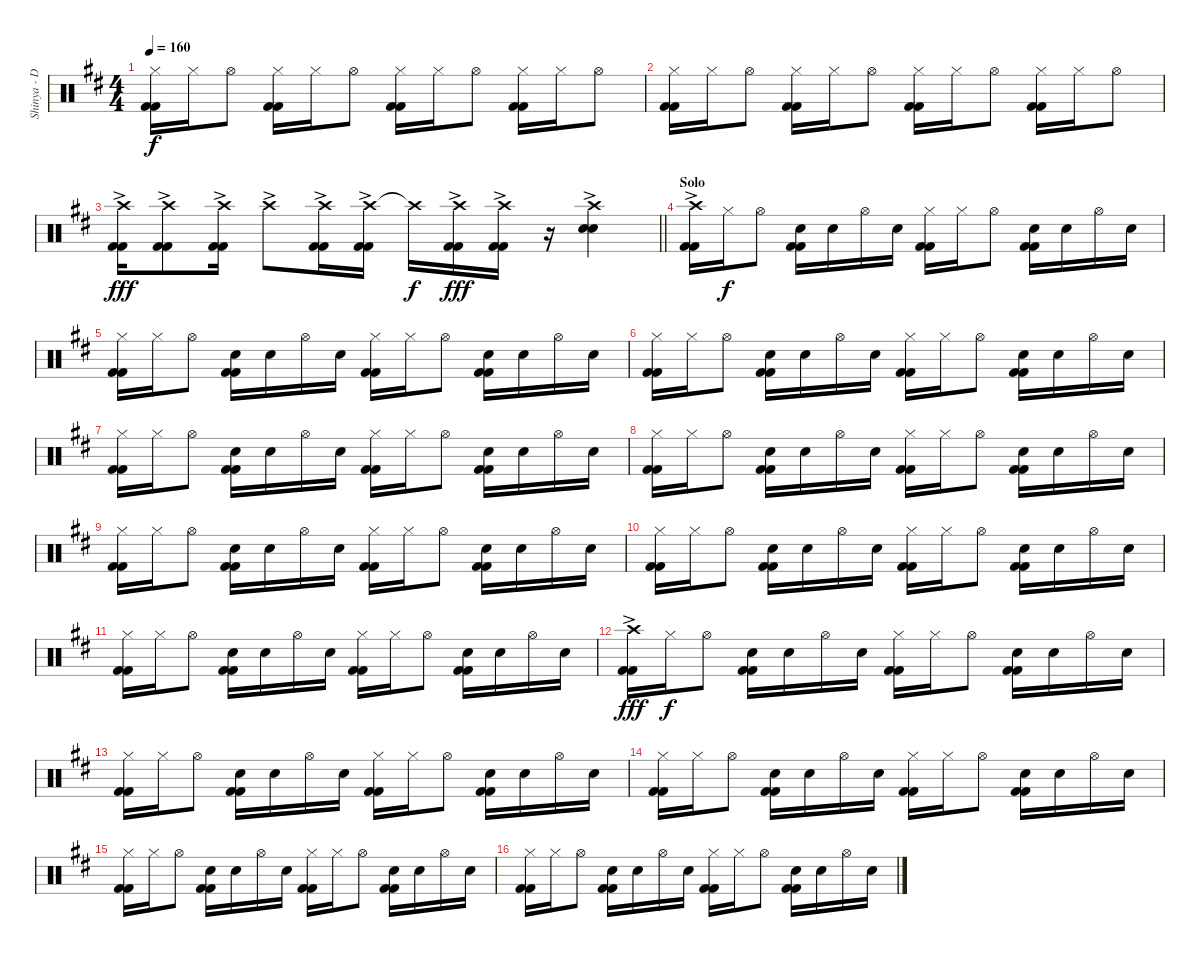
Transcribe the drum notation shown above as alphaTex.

\track ("Shinya - Drums" "Shinya - D") {instrument percussion}
\staff {score}
\articulation defaults
\ts (4 4)
\tempo 160
\clef neutral
\ks d
("Hi-Hat (closed)" "Kick (hit) 2" "Kick (hit) 2").16{dy f} "Hi-Hat (closed)".16 "Hi-Hat (open)".8 ("Hi-Hat (closed)" "Kick (hit) 2" "Kick (hit) 2").16 "Hi-Hat (closed)".16 "Hi-Hat (open)".8 ("Hi-Hat (closed)" "Kick (hit) 2" "Kick (hit) 2").16 "Hi-Hat (closed)".16 "Hi-Hat (open)".8 ("Hi-Hat (closed)" "Kick (hit) 2" "Kick (hit) 2").16 "Hi-Hat (closed)".16 "Hi-Hat (open)".8 |
("Hi-Hat (closed)" "Kick (hit) 2" "Kick (hit) 2").16 "Hi-Hat (closed)".16 "Hi-Hat (open)".8 ("Hi-Hat (closed)" "Kick (hit) 2" "Kick (hit) 2").16 "Hi-Hat (closed)".16 "Hi-Hat (open)".8 ("Hi-Hat (closed)" "Kick (hit) 2" "Kick (hit) 2").16 "Hi-Hat (closed)".16 "Hi-Hat (open)".8 ("Hi-Hat (closed)" "Kick (hit) 2" "Kick (hit) 2").16 "Hi-Hat (closed)".16 "Hi-Hat (open)".8 |
\barLineRight lightlight
("Crash high (hit)"{ac} "Kick (hit) 2" "Kick (hit) 2").16{dy fff} ("Crash high (hit)"{ac} "Kick (hit) 2" "Kick (hit) 2").8 ("Crash high (hit)"{ac} "Kick (hit) 2" "Kick (hit) 2").16 "Crash high (hit)"{ac}.8 ("Crash high (hit)"{ac} "Kick (hit) 2" "Kick (hit) 2").16 ("Crash high (hit)"{ac} "Kick (hit) 2" "Kick (hit) 2").16 "Crash high (hit)"{t}.16{dy f} ("Crash high (hit)"{ac} "Kick (hit) 2" "Kick (hit) 2").16{dy fff} ("Crash high (hit)"{ac} "Kick (hit) 2" "Kick (hit) 2").16 r.16 ("Crash high (hit)"{ac} "Snare (hit) 2" "Snare (hit) 2").4 |
\section ("" "Solo")
("Crash high (hit)"{ac} "Kick (hit) 2" "Kick (hit) 2").16 "Hi-Hat (closed)".16{dy f} "Hi-Hat (open)".8 ("Snare (hit) 2" "Kick (hit) 2" "Kick (hit) 2").16 "Snare (hit) 2".16 "Hi-Hat (open)".16 "Snare (hit) 2".16 ("Hi-Hat (closed)" "Kick (hit) 2" "Kick (hit) 2").16 "Hi-Hat (closed)".16 "Hi-Hat (open)".8 ("Snare (hit) 2" "Kick (hit) 2" "Kick (hit) 2").16 "Snare (hit) 2".16 "Hi-Hat (open)".16 "Snare (hit) 2".16 |
("Hi-Hat (closed)" "Kick (hit) 2" "Kick (hit) 2").16 "Hi-Hat (closed)".16 "Hi-Hat (open)".8 ("Snare (hit) 2" "Kick (hit) 2" "Kick (hit) 2").16 "Snare (hit) 2".16 "Hi-Hat (open)".16 "Snare (hit) 2".16 ("Hi-Hat (closed)" "Kick (hit) 2" "Kick (hit) 2").16 "Hi-Hat (closed)".16 "Hi-Hat (open)".8 ("Snare (hit) 2" "Kick (hit) 2" "Kick (hit) 2").16 "Snare (hit) 2".16 "Hi-Hat (open)".16 "Snare (hit) 2".16 |
("Hi-Hat (closed)" "Kick (hit) 2" "Kick (hit) 2").16 "Hi-Hat (closed)".16 "Hi-Hat (open)".8 ("Snare (hit) 2" "Kick (hit) 2" "Kick (hit) 2").16 "Snare (hit) 2".16 "Hi-Hat (open)".16 "Snare (hit) 2".16 ("Hi-Hat (closed)" "Kick (hit) 2" "Kick (hit) 2").16 "Hi-Hat (closed)".16 "Hi-Hat (open)".8 ("Snare (hit) 2" "Kick (hit) 2" "Kick (hit) 2").16 "Snare (hit) 2".16 "Hi-Hat (open)".16 "Snare (hit) 2".16 |
("Hi-Hat (closed)" "Kick (hit) 2" "Kick (hit) 2").16 "Hi-Hat (closed)".16 "Hi-Hat (open)".8 ("Snare (hit) 2" "Kick (hit) 2" "Kick (hit) 2").16 "Snare (hit) 2".16 "Hi-Hat (open)".16 "Snare (hit) 2".16 ("Hi-Hat (closed)" "Kick (hit) 2" "Kick (hit) 2").16 "Hi-Hat (closed)".16 "Hi-Hat (open)".8 ("Snare (hit) 2" "Kick (hit) 2" "Kick (hit) 2").16 "Snare (hit) 2".16 "Hi-Hat (open)".16 "Snare (hit) 2".16 |
("Hi-Hat (closed)" "Kick (hit) 2" "Kick (hit) 2").16 "Hi-Hat (closed)".16 "Hi-Hat (open)".8 ("Snare (hit) 2" "Kick (hit) 2" "Kick (hit) 2").16 "Snare (hit) 2".16 "Hi-Hat (open)".16 "Snare (hit) 2".16 ("Hi-Hat (closed)" "Kick (hit) 2" "Kick (hit) 2").16 "Hi-Hat (closed)".16 "Hi-Hat (open)".8 ("Snare (hit) 2" "Kick (hit) 2" "Kick (hit) 2").16 "Snare (hit) 2".16 "Hi-Hat (open)".16 "Snare (hit) 2".16 |
("Hi-Hat (closed)" "Kick (hit) 2" "Kick (hit) 2").16 "Hi-Hat (closed)".16 "Hi-Hat (open)".8 ("Snare (hit) 2" "Kick (hit) 2" "Kick (hit) 2").16 "Snare (hit) 2".16 "Hi-Hat (open)".16 "Snare (hit) 2".16 ("Hi-Hat (closed)" "Kick (hit) 2" "Kick (hit) 2").16 "Hi-Hat (closed)".16 "Hi-Hat (open)".8 ("Snare (hit) 2" "Kick (hit) 2" "Kick (hit) 2").16 "Snare (hit) 2".16 "Hi-Hat (open)".16 "Snare (hit) 2".16 |
("Hi-Hat (closed)" "Kick (hit) 2" "Kick (hit) 2").16 "Hi-Hat (closed)".16 "Hi-Hat (open)".8 ("Snare (hit) 2" "Kick (hit) 2" "Kick (hit) 2").16 "Snare (hit) 2".16 "Hi-Hat (open)".16 "Snare (hit) 2".16 ("Hi-Hat (closed)" "Kick (hit) 2" "Kick (hit) 2").16 "Hi-Hat (closed)".16 "Hi-Hat (open)".8 ("Snare (hit) 2" "Kick (hit) 2" "Kick (hit) 2").16 "Snare (hit) 2".16 "Hi-Hat (open)".16 "Snare (hit) 2".16 |
("Hi-Hat (closed)" "Kick (hit) 2" "Kick (hit) 2").16 "Hi-Hat (closed)".16 "Hi-Hat (open)".8 ("Snare (hit) 2" "Kick (hit) 2" "Kick (hit) 2").16 "Snare (hit) 2".16 "Hi-Hat (open)".16 "Snare (hit) 2".16 ("Hi-Hat (closed)" "Kick (hit) 2" "Kick (hit) 2").16 "Hi-Hat (closed)".16 "Hi-Hat (open)".8 ("Snare (hit) 2" "Kick (hit) 2" "Kick (hit) 2").16 "Snare (hit) 2".16 "Hi-Hat (open)".16 "Snare (hit) 2".16 |
("Crash high (hit)"{ac} "Kick (hit) 2" "Kick (hit) 2").16{dy fff} "Hi-Hat (closed)".16{dy f} "Hi-Hat (open)".8 ("Snare (hit) 2" "Kick (hit) 2" "Kick (hit) 2").16 "Snare (hit) 2".16 "Hi-Hat (open)".16 "Snare (hit) 2".16 ("Hi-Hat (closed)" "Kick (hit) 2" "Kick (hit) 2").16 "Hi-Hat (closed)".16 "Hi-Hat (open)".8 ("Snare (hit) 2" "Kick (hit) 2" "Kick (hit) 2").16 "Snare (hit) 2".16 "Hi-Hat (open)".16 "Snare (hit) 2".16 |
("Hi-Hat (closed)" "Kick (hit) 2" "Kick (hit) 2").16 "Hi-Hat (closed)".16 "Hi-Hat (open)".8 ("Snare (hit) 2" "Kick (hit) 2" "Kick (hit) 2").16 "Snare (hit) 2".16 "Hi-Hat (open)".16 "Snare (hit) 2".16 ("Hi-Hat (closed)" "Kick (hit) 2" "Kick (hit) 2").16 "Hi-Hat (closed)".16 "Hi-Hat (open)".8 ("Snare (hit) 2" "Kick (hit) 2" "Kick (hit) 2").16 "Snare (hit) 2".16 "Hi-Hat (open)".16 "Snare (hit) 2".16 |
("Hi-Hat (closed)" "Kick (hit) 2" "Kick (hit) 2").16 "Hi-Hat (closed)".16 "Hi-Hat (open)".8 ("Snare (hit) 2" "Kick (hit) 2" "Kick (hit) 2").16 "Snare (hit) 2".16 "Hi-Hat (open)".16 "Snare (hit) 2".16 ("Hi-Hat (closed)" "Kick (hit) 2" "Kick (hit) 2").16 "Hi-Hat (closed)".16 "Hi-Hat (open)".8 ("Snare (hit) 2" "Kick (hit) 2" "Kick (hit) 2").16 "Snare (hit) 2".16 "Hi-Hat (open)".16 "Snare (hit) 2".16 |
("Hi-Hat (closed)" "Kick (hit) 2" "Kick (hit) 2").16 "Hi-Hat (closed)".16 "Hi-Hat (open)".8 ("Snare (hit) 2" "Kick (hit) 2" "Kick (hit) 2").16 "Snare (hit) 2".16 "Hi-Hat (open)".16 "Snare (hit) 2".16 ("Hi-Hat (closed)" "Kick (hit) 2" "Kick (hit) 2").16 "Hi-Hat (closed)".16 "Hi-Hat (open)".8 ("Snare (hit) 2" "Kick (hit) 2" "Kick (hit) 2").16 "Snare (hit) 2".16 "Hi-Hat (open)".16 "Snare (hit) 2".16 |
("Hi-Hat (closed)" "Kick (hit) 2" "Kick (hit) 2").16 "Hi-Hat (closed)".16 "Hi-Hat (open)".8 ("Snare (hit) 2" "Kick (hit) 2" "Kick (hit) 2").16 "Snare (hit) 2".16 "Hi-Hat (open)".16 "Snare (hit) 2".16 ("Hi-Hat (closed)" "Kick (hit) 2" "Kick (hit) 2").16 "Hi-Hat (closed)".16 "Hi-Hat (open)".8 ("Snare (hit) 2" "Kick (hit) 2" "Kick (hit) 2").16 "Snare (hit) 2".16 "Hi-Hat (open)".16 "Snare (hit) 2".16
